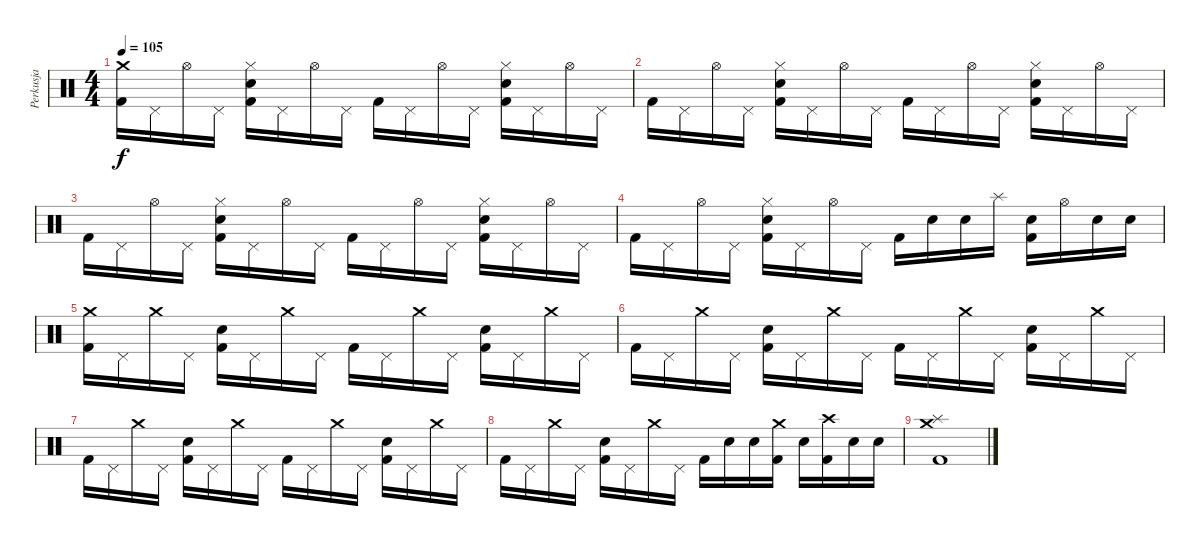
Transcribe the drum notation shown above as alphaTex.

\track ("Perkusja" "Perkusja") {instrument percussion}
\staff {score}
\articulation defaults
\ts (4 4)
\tempo 105
\clef neutral
\ks c
("Crash medium (hit)" "Kick (hit) 2").16{dy f} "Pedal Hi-Hat (hit)".16 "Hi-Hat (open)".16 "Pedal Hi-Hat (hit)".16 ("Hi-Hat (closed)" "Electric Snare (hit)" "Kick (hit) 2").16 "Pedal Hi-Hat (hit)".16 "Hi-Hat (open)".16 "Pedal Hi-Hat (hit)".16 "Kick (hit) 2".16 "Pedal Hi-Hat (hit)".16 "Hi-Hat (open)".16 "Pedal Hi-Hat (hit)".16 ("Hi-Hat (closed)" "Electric Snare (hit)" "Kick (hit) 2").16 "Pedal Hi-Hat (hit)".16 "Hi-Hat (open)".16 "Pedal Hi-Hat (hit)".16 |
"Kick (hit) 2".16 "Pedal Hi-Hat (hit)".16 "Hi-Hat (open)".16 "Pedal Hi-Hat (hit)".16 ("Hi-Hat (closed)" "Electric Snare (hit)" "Kick (hit) 2").16 "Pedal Hi-Hat (hit)".16 "Hi-Hat (open)".16 "Pedal Hi-Hat (hit)".16 "Kick (hit) 2".16 "Pedal Hi-Hat (hit)".16 "Hi-Hat (open)".16 "Pedal Hi-Hat (hit)".16 ("Hi-Hat (closed)" "Electric Snare (hit)" "Kick (hit) 2").16 "Pedal Hi-Hat (hit)".16 "Hi-Hat (open)".16 "Pedal Hi-Hat (hit)".16 |
"Kick (hit) 2".16 "Pedal Hi-Hat (hit)".16 "Hi-Hat (open)".16 "Pedal Hi-Hat (hit)".16 ("Hi-Hat (closed)" "Electric Snare (hit)" "Kick (hit) 2").16 "Pedal Hi-Hat (hit)".16 "Hi-Hat (open)".16 "Pedal Hi-Hat (hit)".16 "Kick (hit) 2".16 "Pedal Hi-Hat (hit)".16 "Hi-Hat (open)".16 "Pedal Hi-Hat (hit)".16 ("Hi-Hat (closed)" "Electric Snare (hit)" "Kick (hit) 2").16 "Pedal Hi-Hat (hit)".16 "Hi-Hat (open)".16 "Pedal Hi-Hat (hit)".16 |
"Kick (hit) 2".16 "Pedal Hi-Hat (hit)".16 "Hi-Hat (open)".16 "Pedal Hi-Hat (hit)".16 ("Hi-Hat (closed)" "Electric Snare (hit)" "Kick (hit) 2").16 "Pedal Hi-Hat (hit)".16 "Hi-Hat (open)".16 "Pedal Hi-Hat (hit)".16 "Kick (hit) 2".16 "Electric Snare (hit)".16 "Electric Snare (hit)".16 "Splash (hit)".16 ("Electric Snare (hit)" "Kick (hit) 2").16 "Hi-Hat (open)".16 "Electric Snare (hit)".16 "Electric Snare (hit)".16 |
("Crash medium (hit)" "Kick (hit) 2").16 "Pedal Hi-Hat (hit)".16 "Crash medium (hit)".16 "Pedal Hi-Hat (hit)".16 ("Electric Snare (hit)" "Kick (hit) 2").16 "Pedal Hi-Hat (hit)".16 "Crash medium (hit)".16 "Pedal Hi-Hat (hit)".16 "Kick (hit) 2".16 "Pedal Hi-Hat (hit)".16 "Crash medium (hit)".16 "Pedal Hi-Hat (hit)".16 ("Electric Snare (hit)" "Kick (hit) 2").16 "Pedal Hi-Hat (hit)".16 "Crash medium (hit)".16 "Pedal Hi-Hat (hit)".16 |
"Kick (hit) 2".16 "Pedal Hi-Hat (hit)".16 "Crash medium (hit)".16 "Pedal Hi-Hat (hit)".16 ("Electric Snare (hit)" "Kick (hit) 2").16 "Pedal Hi-Hat (hit)".16 "Crash medium (hit)".16 "Pedal Hi-Hat (hit)".16 "Kick (hit) 2".16 "Pedal Hi-Hat (hit)".16 "Crash medium (hit)".16 "Pedal Hi-Hat (hit)".16 ("Electric Snare (hit)" "Kick (hit) 2").16 "Pedal Hi-Hat (hit)".16 "Crash medium (hit)".16 "Pedal Hi-Hat (hit)".16 |
"Kick (hit) 2".16 "Pedal Hi-Hat (hit)".16 "Crash medium (hit)".16 "Pedal Hi-Hat (hit)".16 ("Electric Snare (hit)" "Kick (hit) 2").16 "Pedal Hi-Hat (hit)".16 "Crash medium (hit)".16 "Pedal Hi-Hat (hit)".16 "Kick (hit) 2".16 "Pedal Hi-Hat (hit)".16 "Crash medium (hit)".16 "Pedal Hi-Hat (hit)".16 ("Electric Snare (hit)" "Kick (hit) 2").16 "Pedal Hi-Hat (hit)".16 "Crash medium (hit)".16 "Pedal Hi-Hat (hit)".16 |
"Kick (hit) 2".16 "Pedal Hi-Hat (hit)".16 "Crash medium (hit)".16 "Pedal Hi-Hat (hit)".16 ("Electric Snare (hit)" "Kick (hit) 2").16 "Pedal Hi-Hat (hit)".16 "Crash medium (hit)".16 "Pedal Hi-Hat (hit)".16 "Kick (hit) 2".16 "Electric Snare (hit)".16 "Electric Snare (hit)".16 ("Crash medium (hit)" "Kick (hit) 2").16 "Electric Snare (hit)".16 ("Crash high (hit)" "Kick (hit) 2").16 "Electric Snare (hit)".16 "Electric Snare (hit)".16 |
("Crash medium (hit)" "Splash (hit)" "Kick (hit) 2").1
